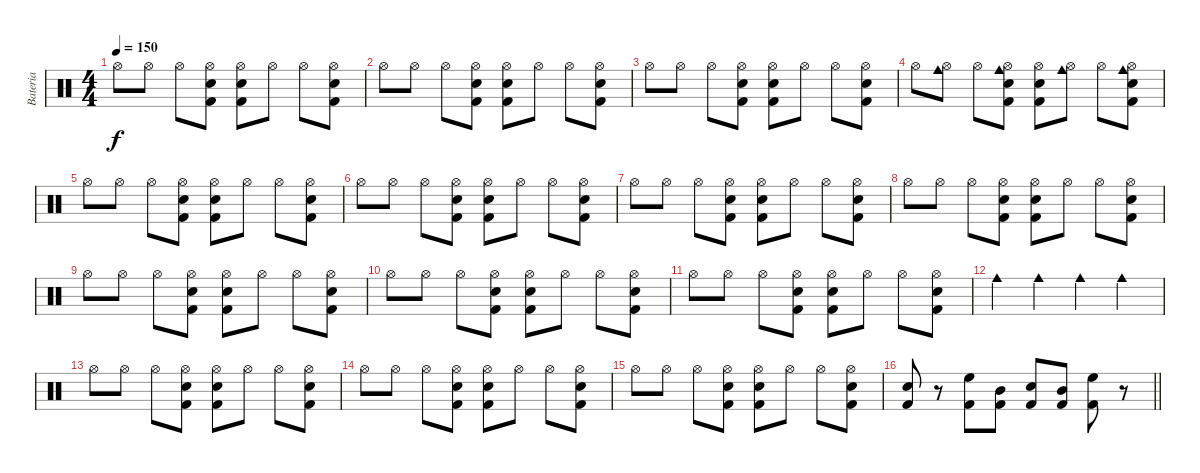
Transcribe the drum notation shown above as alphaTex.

\track ("Bateria" "Bateria") {instrument percussion}
\staff {score}
\articulation defaults
\ts (4 4)
\tempo 150
\clef neutral
\ks c "Hi-Hat (open)".8{dy f} "Hi-Hat (open)".8 "Hi-Hat (open)".8
("Hi-Hat (open)" "Electric Snare (hit)" "Kick (hit) 2").8 ("Hi-Hat (open)" "Electric Snare (hit)" "Kick (hit) 2").8 "Hi-Hat (open)".8 "Hi-Hat (open)".8 ("Hi-Hat (open)" "Electric Snare (hit)" "Kick (hit) 2").8 |
"Hi-Hat (open)".8 "Hi-Hat (open)".8 "Hi-Hat (open)".8 ("Hi-Hat (open)" "Electric Snare (hit)" "Kick (hit) 2").8 ("Hi-Hat (open)" "Electric Snare (hit)" "Kick (hit) 2").8 "Hi-Hat (open)".8 "Hi-Hat (open)".8 ("Hi-Hat (open)" "Electric Snare (hit)" "Kick (hit) 2").8 |
"Hi-Hat (open)".8 "Hi-Hat (open)".8 "Hi-Hat (open)".8 ("Hi-Hat (open)" "Electric Snare (hit)" "Kick (hit) 2").8 ("Hi-Hat (open)" "Electric Snare (hit)" "Kick (hit) 2").8 "Hi-Hat (open)".8 "Hi-Hat (open)".8 ("Hi-Hat (open)" "Electric Snare (hit)" "Kick (hit) 2").8 |
"Hi-Hat (open)".8 ("Cowbell medium (hit)" "Hi-Hat (open)").8 "Hi-Hat (open)".8 ("Cowbell medium (hit)" "Hi-Hat (open)" "Electric Snare (hit)" "Kick (hit) 2").8 ("Hi-Hat (open)" "Electric Snare (hit)" "Kick (hit) 2").8 ("Cowbell medium (hit)" "Hi-Hat (open)").8 "Hi-Hat (open)".8 ("Cowbell medium (hit)" "Hi-Hat (open)" "Electric Snare (hit)" "Kick (hit) 2").8 |
"Hi-Hat (open)".8 "Hi-Hat (open)".8 "Hi-Hat (open)".8 ("Hi-Hat (open)" "Electric Snare (hit)" "Kick (hit) 2").8 ("Hi-Hat (open)" "Electric Snare (hit)" "Kick (hit) 2").8 "Hi-Hat (open)".8 "Hi-Hat (open)".8 ("Hi-Hat (open)" "Electric Snare (hit)" "Kick (hit) 2").8 |
"Hi-Hat (open)".8 "Hi-Hat (open)".8 "Hi-Hat (open)".8 ("Hi-Hat (open)" "Electric Snare (hit)" "Kick (hit) 2").8 ("Hi-Hat (open)" "Electric Snare (hit)" "Kick (hit) 2").8 "Hi-Hat (open)".8 "Hi-Hat (open)".8 ("Hi-Hat (open)" "Electric Snare (hit)" "Kick (hit) 2").8 |
"Hi-Hat (open)".8 "Hi-Hat (open)".8 "Hi-Hat (open)".8 ("Hi-Hat (open)" "Electric Snare (hit)" "Kick (hit) 2").8 ("Hi-Hat (open)" "Electric Snare (hit)" "Kick (hit) 2").8 "Hi-Hat (open)".8 "Hi-Hat (open)".8 ("Hi-Hat (open)" "Electric Snare (hit)" "Kick (hit) 2").8 |
"Hi-Hat (open)".8 "Hi-Hat (open)".8 "Hi-Hat (open)".8 ("Hi-Hat (open)" "Electric Snare (hit)" "Kick (hit) 2").8 ("Hi-Hat (open)" "Electric Snare (hit)" "Kick (hit) 2").8 "Hi-Hat (open)".8 "Hi-Hat (open)".8 ("Hi-Hat (open)" "Electric Snare (hit)" "Kick (hit) 2").8 |
"Hi-Hat (open)".8 "Hi-Hat (open)".8 "Hi-Hat (open)".8 ("Hi-Hat (open)" "Electric Snare (hit)" "Kick (hit) 2").8 ("Hi-Hat (open)" "Electric Snare (hit)" "Kick (hit) 2").8 "Hi-Hat (open)".8 "Hi-Hat (open)".8 ("Hi-Hat (open)" "Electric Snare (hit)" "Kick (hit) 2").8 |
"Hi-Hat (open)".8 "Hi-Hat (open)".8 "Hi-Hat (open)".8 ("Hi-Hat (open)" "Electric Snare (hit)" "Kick (hit) 2").8 ("Hi-Hat (open)" "Electric Snare (hit)" "Kick (hit) 2").8 "Hi-Hat (open)".8 "Hi-Hat (open)".8 ("Hi-Hat (open)" "Electric Snare (hit)" "Kick (hit) 2").8 |
"Hi-Hat (open)".8 "Hi-Hat (open)".8 "Hi-Hat (open)".8 ("Hi-Hat (open)" "Electric Snare (hit)" "Kick (hit) 2").8 ("Hi-Hat (open)" "Electric Snare (hit)" "Kick (hit) 2").8 "Hi-Hat (open)".8 "Hi-Hat (open)".8 ("Hi-Hat (open)" "Electric Snare (hit)" "Kick (hit) 2").8 |
"Cowbell medium (hit)".4 "Cowbell medium (hit)".4 "Cowbell medium (hit)".4 "Cowbell medium (hit)".4 |
"Hi-Hat (open)".8 "Hi-Hat (open)".8 "Hi-Hat (open)".8 ("Hi-Hat (open)" "Electric Snare (hit)" "Kick (hit) 2").8 ("Hi-Hat (open)" "Electric Snare (hit)" "Kick (hit) 2").8 "Hi-Hat (open)".8 "Hi-Hat (open)".8 ("Hi-Hat (open)" "Electric Snare (hit)" "Kick (hit) 2").8 |
"Hi-Hat (open)".8 "Hi-Hat (open)".8 "Hi-Hat (open)".8 ("Hi-Hat (open)" "Electric Snare (hit)" "Kick (hit) 2").8 ("Hi-Hat (open)" "Electric Snare (hit)" "Kick (hit) 2").8 "Hi-Hat (open)".8 "Hi-Hat (open)".8 ("Hi-Hat (open)" "Electric Snare (hit)" "Kick (hit) 2").8 |
"Hi-Hat (open)".8 "Hi-Hat (open)".8 "Hi-Hat (open)".8 ("Hi-Hat (open)" "Electric Snare (hit)" "Kick (hit) 2").8 ("Hi-Hat (open)" "Electric Snare (hit)" "Kick (hit) 2").8 "Hi-Hat (open)".8 "Hi-Hat (open)".8 ("Hi-Hat (open)" "Electric Snare (hit)" "Kick (hit) 2").8 |
\barLineRight lightlight
("Snare (hit) 2" "Kick (hit) 2").8 r.8 ("High Floor Tom (hit)" "Kick (hit) 2").8 ("Mid Tom (hit)" "Kick (hit) 2").8 ("Snare (hit) 2" "Kick (hit) 2").8 ("Mid Tom (hit)" "Kick (hit) 2").8 ("High Floor Tom (hit)" "Kick (hit) 2").8 r.8
